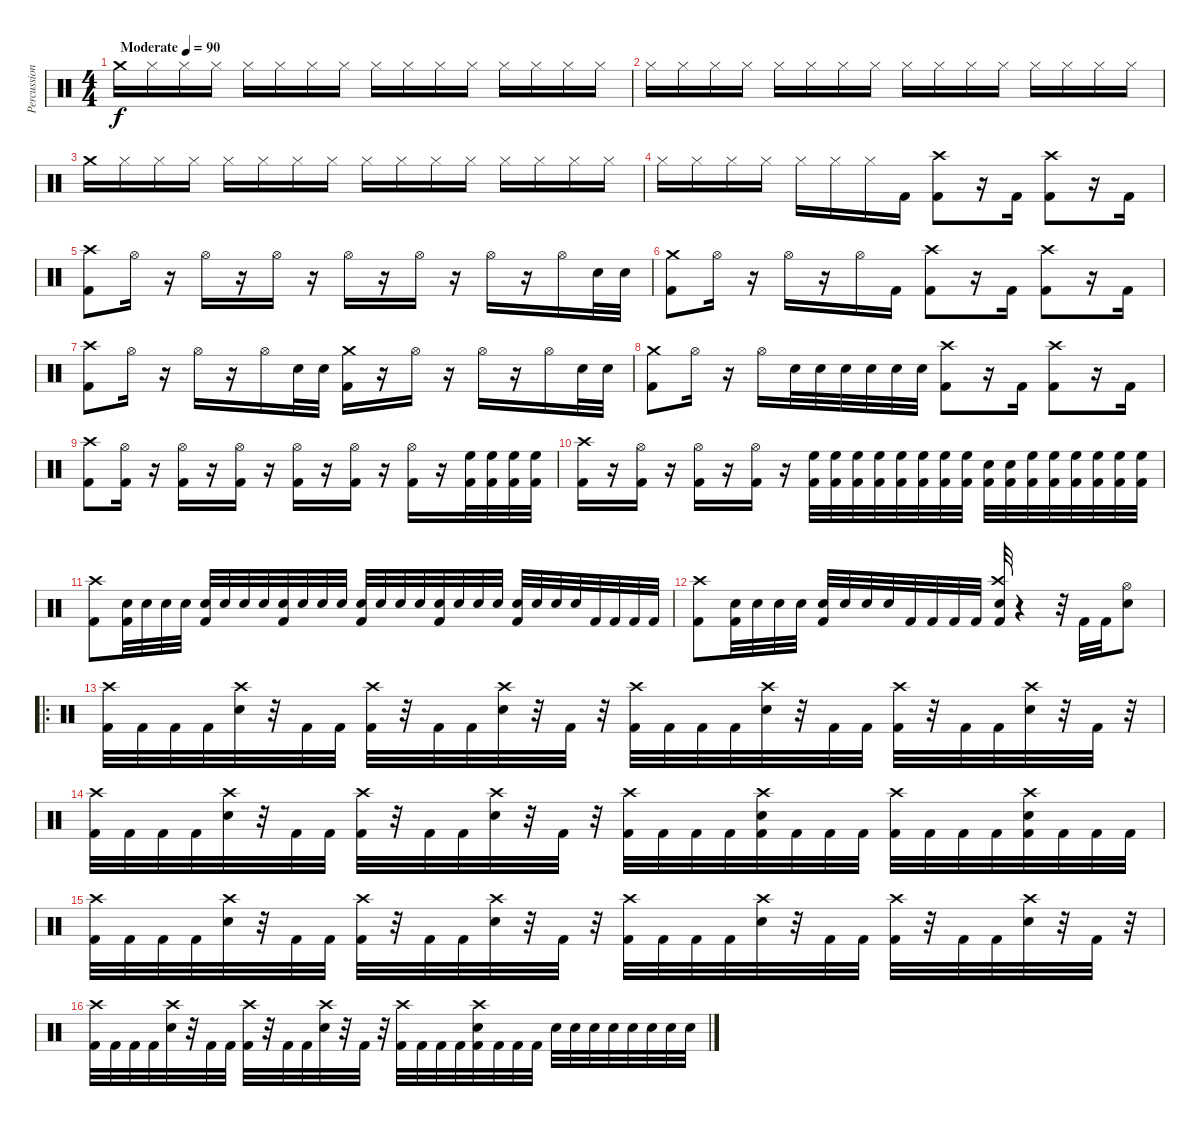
\track ("Percussion" "Percussion") {instrument percussion}
\staff {score}
\articulation defaults
\ts (4 4)
\tempo (90 "Moderate")
\clef neutral
\ks c "Crash medium (hit)".16{dy f} "Hi-Hat (closed)".16 "Hi-Hat (closed)".16 "Hi-Hat (closed)".16 "Hi-Hat (closed)".16 "Hi-Hat (closed)".16 "Hi-Hat (closed)".16 "Hi-Hat (closed)".16 "Hi-Hat (closed)".16 "Hi-Hat (closed)".16 "Hi-Hat (closed)".16 "Hi-Hat (closed)".16 "Hi-Hat (closed)".16 "Hi-Hat (closed)".16 "Hi-Hat (closed)".16 "Hi-Hat (closed)".16
|
"Hi-Hat (closed)".16 "Hi-Hat (closed)".16 "Hi-Hat (closed)".16 "Hi-Hat (closed)".16 "Hi-Hat (closed)".16 "Hi-Hat (closed)".16 "Hi-Hat (closed)".16 "Hi-Hat (closed)".16 "Hi-Hat (closed)".16 "Hi-Hat (closed)".16 "Hi-Hat (closed)".16 "Hi-Hat (closed)".16 "Hi-Hat (closed)".16 "Hi-Hat (closed)".16 "Hi-Hat (closed)".16 "Hi-Hat (closed)".16 |
"Crash medium (hit)".16 "Hi-Hat (closed)".16 "Hi-Hat (closed)".16 "Hi-Hat (closed)".16 "Hi-Hat (closed)".16 "Hi-Hat (closed)".16 "Hi-Hat (closed)".16 "Hi-Hat (closed)".16 "Hi-Hat (closed)".16 "Hi-Hat (closed)".16 "Hi-Hat (closed)".16 "Hi-Hat (closed)".16 "Hi-Hat (closed)".16 "Hi-Hat (closed)".16 "Hi-Hat (closed)".16 "Hi-Hat (closed)".16 |
"Hi-Hat (closed)".16 "Hi-Hat (closed)".16 "Hi-Hat (closed)".16 "Hi-Hat (closed)".16 "Hi-Hat (closed)".16 "Hi-Hat (closed)".16 "Hi-Hat (closed)".16 "Kick (hit) 2".16 ("Crash high (hit)" "Kick (hit) 2").8 r.16 "Kick (hit) 2".16 ("Crash high (hit)" "Kick (hit) 2").8 r.16 "Kick (hit) 2".16 |
("Crash high (hit)" "Kick (hit) 2").8 "Hi-Hat (open)".16 r.16 "Hi-Hat (open)".16 r.16 "Hi-Hat (open)".16 r.16 "Hi-Hat (open)".16 r.16 "Hi-Hat (open)".16 r.16 "Hi-Hat (open)".16 r.16 "Hi-Hat (open)".16 "Electric Snare (hit)".32 "Electric Snare (hit)".32 |
("Crash medium (hit)" "Kick (hit) 2").8 "Hi-Hat (open)".16 r.16 "Hi-Hat (open)".16 r.16 "Hi-Hat (open)".16 "Kick (hit) 2".16 ("Crash high (hit)" "Kick (hit) 2").8 r.16 "Kick (hit) 2".16 ("Crash high (hit)" "Kick (hit) 2").8 r.16 "Kick (hit) 2".16 |
("Crash high (hit)" "Kick (hit) 2").8 "Hi-Hat (open)".16 r.16 "Hi-Hat (open)".16 r.16 "Hi-Hat (open)".16 "Electric Snare (hit)".32 "Electric Snare (hit)".32 ("Crash medium (hit)" "Kick (hit) 2").16 r.16 "Hi-Hat (open)".16 r.16 "Hi-Hat (open)".16 r.16 "Hi-Hat (open)".16 "Electric Snare (hit)".32 "Electric Snare (hit)".32 |
("Crash medium (hit)" "Kick (hit) 2").8 "Hi-Hat (open)".16 r.16 "Hi-Hat (open)".16 "Electric Snare (hit)".32 "Electric Snare (hit)".32 "Electric Snare (hit)".32 "Electric Snare (hit)".32 "Electric Snare (hit)".32 "Electric Snare (hit)".32 ("Crash high (hit)" "Kick (hit) 2").8 r.16 "Kick (hit) 2".16 ("Crash high (hit)" "Kick (hit) 2").8 r.16 "Kick (hit) 2".16 |
("Crash high (hit)" "Kick (hit) 2").8 ("Hi-Hat (open)" "Kick (hit) 2").16 r.16 ("Hi-Hat (open)" "Kick (hit) 2").16 r.16 ("Hi-Hat (open)" "Kick (hit) 2").16 r.16 ("Hi-Hat (open)" "Kick (hit) 2").16 r.16 ("Hi-Hat (open)" "Kick (hit) 2").16 r.16 ("Hi-Hat (open)" "Kick (hit) 2").16 r.16 ("High Floor Tom (hit)" "Kick (hit) 2").32 ("High Floor Tom (hit)" "Kick (hit) 2").32 ("High Floor Tom (hit)" "Kick (hit) 2").32 ("High Floor Tom (hit)" "Kick (hit) 2").32 |
("Crash high (hit)" "Kick (hit) 2").16 r.16 ("Hi-Hat (open)" "Kick (hit) 2").16 r.16 ("Hi-Hat (open)" "Kick (hit) 2").16 r.16 ("Hi-Hat (open)" "Kick (hit) 2").16 r.16 ("High Floor Tom (hit)" "Kick (hit) 2").32 ("High Floor Tom (hit)" "Kick (hit) 2").32 ("High Floor Tom (hit)" "Kick (hit) 2").32 ("High Floor Tom (hit)" "Kick (hit) 2").32 ("High Floor Tom (hit)" "Kick (hit) 2").32 ("High Floor Tom (hit)" "Kick (hit) 2").32 ("High Floor Tom (hit)" "Kick (hit) 2").32 ("High Floor Tom (hit)" "Kick (hit) 2").32 ("Electric Snare (hit)" "Kick (hit) 2").32 ("Electric Snare (hit)" "Kick (hit) 2").32 ("High Floor Tom (hit)" "Kick (hit) 2").32 ("High Floor Tom (hit)" "Kick (hit) 2").32 ("High Floor Tom (hit)" "Kick (hit) 2").32 ("High Floor Tom (hit)" "Kick (hit) 2").32 ("High Floor Tom (hit)" "Kick (hit) 2").32 ("High Floor Tom (hit)" "Kick (hit) 2").32 |
("Crash high (hit)" "Kick (hit) 2").8 ("Electric Snare (hit)" "Kick (hit) 2").32 "Electric Snare (hit)".32 "Electric Snare (hit)".32 "Electric Snare (hit)".32 ("Electric Snare (hit)" "Kick (hit) 2").32 "Electric Snare (hit)".32 "Electric Snare (hit)".32 "Electric Snare (hit)".32 ("Electric Snare (hit)" "Kick (hit) 2").32 "Electric Snare (hit)".32 "Electric Snare (hit)".32 "Electric Snare (hit)".32 ("Electric Snare (hit)" "Kick (hit) 2").32 "Electric Snare (hit)".32 "Electric Snare (hit)".32 "Electric Snare (hit)".32 ("Electric Snare (hit)" "Kick (hit) 2").32 "Electric Snare (hit)".32 "Electric Snare (hit)".32 "Electric Snare (hit)".32 ("Electric Snare (hit)" "Kick (hit) 2").32 "Electric Snare (hit)".32 "Electric Snare (hit)".32 "Electric Snare (hit)".32 "Kick (hit) 2".32 "Kick (hit) 2".32 "Kick (hit) 2".32 "Kick (hit) 2".32 |
("Crash high (hit)" "Kick (hit) 2").8 ("Electric Snare (hit)" "Kick (hit) 2").32 "Electric Snare (hit)".32 "Electric Snare (hit)".32 "Electric Snare (hit)".32 ("Electric Snare (hit)" "Kick (hit) 2").32 "Electric Snare (hit)".32 "Electric Snare (hit)".32 "Electric Snare (hit)".32 "Kick (hit) 2".32 "Kick (hit) 2".32 "Kick (hit) 2".32 "Kick (hit) 2".32 ("Crash high (hit)" "Electric Snare (hit)" "Kick (hit) 2").32 r.4 r.32 "Kick (hit) 2".32 "Kick (hit) 2".32 ("Hi-Hat (open)" "Electric Snare (hit)").8 |
\ro
("Crash high (hit)" "Kick (hit) 2").32 "Kick (hit) 2".32 "Kick (hit) 2".32 "Kick (hit) 2".32 ("Crash high (hit)" "Electric Snare (hit)").32 r.32 "Kick (hit) 2".32 "Kick (hit) 2".32 ("Crash high (hit)" "Kick (hit) 2").32 r.32 "Kick (hit) 2".32 "Kick (hit) 2".32 ("Crash high (hit)" "Electric Snare (hit)").32 r.32 "Kick (hit) 2".32 r.32 ("Crash high (hit)" "Kick (hit) 2").32 "Kick (hit) 2".32 "Kick (hit) 2".32 "Kick (hit) 2".32 ("Crash high (hit)" "Electric Snare (hit)").32 r.32 "Kick (hit) 2".32 "Kick (hit) 2".32 ("Crash high (hit)" "Kick (hit) 2").32 r.32 "Kick (hit) 2".32 "Kick (hit) 2".32 ("Crash high (hit)" "Electric Snare (hit)").32 r.32 "Kick (hit) 2".32 r.32 |
("Crash high (hit)" "Kick (hit) 2").32 "Kick (hit) 2".32 "Kick (hit) 2".32 "Kick (hit) 2".32 ("Crash high (hit)" "Electric Snare (hit)").32 r.32 "Kick (hit) 2".32 "Kick (hit) 2".32 ("Crash high (hit)" "Kick (hit) 2").32 r.32 "Kick (hit) 2".32 "Kick (hit) 2".32 ("Crash high (hit)" "Electric Snare (hit)").32 r.32 "Kick (hit) 2".32 r.32 ("Crash high (hit)" "Kick (hit) 2").32 "Kick (hit) 2".32 "Kick (hit) 2".32 "Kick (hit) 2".32 ("Crash high (hit)" "Electric Snare (hit)" "Kick (hit) 2").32 "Kick (hit) 2".32 "Kick (hit) 2".32 "Kick (hit) 2".32 ("Crash high (hit)" "Kick (hit) 2").32 "Kick (hit) 2".32 "Kick (hit) 2".32 "Kick (hit) 2".32 ("Crash high (hit)" "Electric Snare (hit)" "Kick (hit) 2").32 "Kick (hit) 2".32 "Kick (hit) 2".32 "Kick (hit) 2".32 |
("Crash high (hit)" "Kick (hit) 2").32 "Kick (hit) 2".32 "Kick (hit) 2".32 "Kick (hit) 2".32 ("Crash high (hit)" "Electric Snare (hit)").32 r.32 "Kick (hit) 2".32 "Kick (hit) 2".32 ("Crash high (hit)" "Kick (hit) 2").32 r.32 "Kick (hit) 2".32 "Kick (hit) 2".32 ("Crash high (hit)" "Electric Snare (hit)").32 r.32 "Kick (hit) 2".32 r.32 ("Crash high (hit)" "Kick (hit) 2").32 "Kick (hit) 2".32 "Kick (hit) 2".32 "Kick (hit) 2".32 ("Crash high (hit)" "Electric Snare (hit)").32 r.32 "Kick (hit) 2".32 "Kick (hit) 2".32 ("Crash high (hit)" "Kick (hit) 2").32 r.32 "Kick (hit) 2".32 "Kick (hit) 2".32 ("Crash high (hit)" "Electric Snare (hit)").32 r.32 "Kick (hit) 2".32 r.32 |
("Crash high (hit)" "Kick (hit) 2").32 "Kick (hit) 2".32 "Kick (hit) 2".32 "Kick (hit) 2".32 ("Crash high (hit)" "Electric Snare (hit)").32 r.32 "Kick (hit) 2".32 "Kick (hit) 2".32 ("Crash high (hit)" "Kick (hit) 2").32 r.32 "Kick (hit) 2".32 "Kick (hit) 2".32 ("Crash high (hit)" "Electric Snare (hit)").32 r.32 "Kick (hit) 2".32 r.32 ("Crash high (hit)" "Kick (hit) 2").32 "Kick (hit) 2".32 "Kick (hit) 2".32 "Kick (hit) 2".32 ("Crash high (hit)" "Electric Snare (hit)" "Kick (hit) 2").32 "Kick (hit) 2".32 "Kick (hit) 2".32 "Kick (hit) 2".32 "Electric Snare (hit)".32 "Electric Snare (hit)".32 "Electric Snare (hit)".32 "Electric Snare (hit)".32 "Electric Snare (hit)".32 "Electric Snare (hit)".32 "Electric Snare (hit)".32 "Electric Snare (hit)".32
